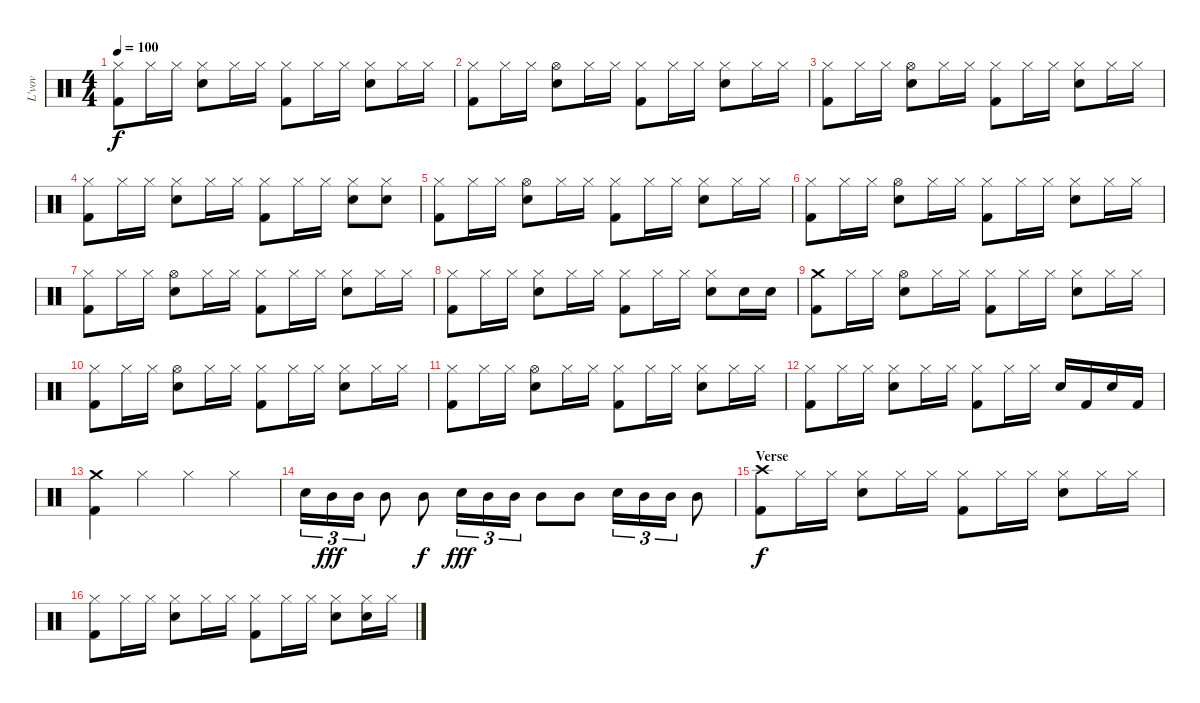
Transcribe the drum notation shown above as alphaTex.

\track ("L'vov" "L'vov") {instrument percussion}
\staff {score}
\articulation defaults
\ts (4 4)
\tempo 100
\clef neutral
\ks c
("Kick (hit) 2" "Hi-Hat (closed)").8{dy f} "Hi-Hat (closed)".16 "Hi-Hat (closed)".16 ("Snare (hit) 2" "Hi-Hat (closed)").8 "Hi-Hat (closed)".16 "Hi-Hat (closed)".16 ("Kick (hit) 2" "Hi-Hat (closed)").8 "Hi-Hat (closed)".16 "Hi-Hat (closed)".16 ("Snare (hit) 2" "Hi-Hat (closed)").8 "Hi-Hat (closed)".16 "Hi-Hat (closed)".16 |
("Kick (hit) 2" "Hi-Hat (closed)").8 "Hi-Hat (closed)".16 "Hi-Hat (closed)".16 ("Snare (hit) 2" "Hi-Hat (open)").8 "Hi-Hat (closed)".16 "Hi-Hat (closed)".16 ("Kick (hit) 2" "Hi-Hat (closed)").8 "Hi-Hat (closed)".16 "Hi-Hat (closed)".16 ("Snare (hit) 2" "Hi-Hat (closed)").8 "Hi-Hat (closed)".16 "Hi-Hat (closed)".16 |
("Kick (hit) 2" "Hi-Hat (closed)").8 "Hi-Hat (closed)".16 "Hi-Hat (closed)".16 ("Snare (hit) 2" "Hi-Hat (open)").8 "Hi-Hat (closed)".16 "Hi-Hat (closed)".16 ("Kick (hit) 2" "Hi-Hat (closed)").8 "Hi-Hat (closed)".16 "Hi-Hat (closed)".16 ("Snare (hit) 2" "Hi-Hat (closed)").8 "Hi-Hat (closed)".16 "Hi-Hat (closed)".16 |
("Kick (hit) 2" "Hi-Hat (closed)").8 "Hi-Hat (closed)".16 "Hi-Hat (closed)".16 ("Snare (hit) 2" "Hi-Hat (closed)").8 "Hi-Hat (closed)".16 "Hi-Hat (closed)".16 ("Kick (hit) 2" "Hi-Hat (closed)").8 "Hi-Hat (closed)".16 "Hi-Hat (closed)".16 ("Snare (hit) 2" "Hi-Hat (closed)").8 ("Snare (hit) 2" "Hi-Hat (closed)").8 |
("Kick (hit) 2" "Hi-Hat (closed)").8 "Hi-Hat (closed)".16 "Hi-Hat (closed)".16 ("Snare (hit) 2" "Hi-Hat (open)").8 "Hi-Hat (closed)".16 "Hi-Hat (closed)".16 ("Kick (hit) 2" "Hi-Hat (closed)").8 "Hi-Hat (closed)".16 "Hi-Hat (closed)".16 ("Snare (hit) 2" "Hi-Hat (closed)").8 "Hi-Hat (closed)".16 "Hi-Hat (closed)".16 |
("Kick (hit) 2" "Hi-Hat (closed)").8 "Hi-Hat (closed)".16 "Hi-Hat (closed)".16 ("Snare (hit) 2" "Hi-Hat (open)").8 "Hi-Hat (closed)".16 "Hi-Hat (closed)".16 ("Kick (hit) 2" "Hi-Hat (closed)").8 "Hi-Hat (closed)".16 "Hi-Hat (closed)".16 ("Snare (hit) 2" "Hi-Hat (closed)").8 "Hi-Hat (closed)".16 "Hi-Hat (closed)".16 |
("Kick (hit) 2" "Hi-Hat (closed)").8 "Hi-Hat (closed)".16 "Hi-Hat (closed)".16 ("Snare (hit) 2" "Hi-Hat (open)").8 "Hi-Hat (closed)".16 "Hi-Hat (closed)".16 ("Kick (hit) 2" "Hi-Hat (closed)").8 "Hi-Hat (closed)".16 "Hi-Hat (closed)".16 ("Snare (hit) 2" "Hi-Hat (closed)").8 "Hi-Hat (closed)".16 "Hi-Hat (closed)".16 |
("Kick (hit) 2" "Hi-Hat (closed)").8 "Hi-Hat (closed)".16 "Hi-Hat (closed)".16 ("Snare (hit) 2" "Hi-Hat (closed)").8 "Hi-Hat (closed)".16 "Hi-Hat (closed)".16 ("Kick (hit) 2" "Hi-Hat (closed)").8 "Hi-Hat (closed)".16 "Hi-Hat (closed)".16 ("Snare (hit) 2" "Hi-Hat (closed)").8 "Snare (hit) 2".16 "Snare (hit) 2".16 |
("Kick (hit) 2" "Crash medium (hit)").8 "Hi-Hat (closed)".16 "Hi-Hat (closed)".16 ("Snare (hit) 2" "Hi-Hat (open)").8 "Hi-Hat (closed)".16 "Hi-Hat (closed)".16 ("Kick (hit) 2" "Hi-Hat (closed)").8 "Hi-Hat (closed)".16 "Hi-Hat (closed)".16 ("Snare (hit) 2" "Hi-Hat (closed)").8 "Hi-Hat (closed)".16 "Hi-Hat (closed)".16 |
("Kick (hit) 2" "Hi-Hat (closed)").8 "Hi-Hat (closed)".16 "Hi-Hat (closed)".16 ("Snare (hit) 2" "Hi-Hat (open)").8 "Hi-Hat (closed)".16 "Hi-Hat (closed)".16 ("Kick (hit) 2" "Hi-Hat (closed)").8 "Hi-Hat (closed)".16 "Hi-Hat (closed)".16 ("Snare (hit) 2" "Hi-Hat (closed)").8 "Hi-Hat (closed)".16 "Hi-Hat (closed)".16 |
("Kick (hit) 2" "Hi-Hat (closed)").8 "Hi-Hat (closed)".16 "Hi-Hat (closed)".16 ("Snare (hit) 2" "Hi-Hat (open)").8 "Hi-Hat (closed)".16 "Hi-Hat (closed)".16 ("Kick (hit) 2" "Hi-Hat (closed)").8 "Hi-Hat (closed)".16 "Hi-Hat (closed)".16 ("Snare (hit) 2" "Hi-Hat (closed)").8 "Hi-Hat (closed)".16 "Hi-Hat (closed)".16 |
("Kick (hit) 2" "Hi-Hat (closed)").8 "Hi-Hat (closed)".16 "Hi-Hat (closed)".16 ("Snare (hit) 2" "Hi-Hat (closed)").8 "Hi-Hat (closed)".16 "Hi-Hat (closed)".16 ("Kick (hit) 2" "Hi-Hat (closed)").8 "Hi-Hat (closed)".16 "Hi-Hat (closed)".16 "Snare (hit) 2".16 "Kick (hit) 2".16 "Snare (hit) 2".16 "Kick (hit) 2".16 |
("Kick (hit) 2" "Crash medium (hit)").4 "Hi-Hat (closed)".4 "Hi-Hat (closed)".4 "Hi-Hat (closed)".4 |
"Snare (hit) 2".16{tu (3 2)} "Mid Tom (hit)".16{tu (3 2) dy fff} "Mid Tom (hit)".16{tu (3 2)} "Mid Tom (hit)".8 "Mid Tom (hit)".8{dy f} "Snare (hit) 2".16{tu (3 2) dy fff} "Mid Tom (hit)".16{tu (3 2)} "Mid Tom (hit)".16{tu (3 2)} "Mid Tom (hit)".8 "Mid Tom (hit)".8 "Snare (hit) 2".16{tu (3 2)} "Mid Tom (hit)".16{tu (3 2)} "Mid Tom (hit)".16{tu (3 2)} "Mid Tom (hit)".8 |
\section ("" "Verse ")
("Kick (hit) 2" "Crash high (hit)").8{dy f} "Hi-Hat (closed)".16 "Hi-Hat (closed)".16 ("Snare (hit) 2" "Hi-Hat (closed)").8 "Hi-Hat (closed)".16 "Hi-Hat (closed)".16 ("Kick (hit) 2" "Hi-Hat (closed)").8 "Hi-Hat (closed)".16 "Hi-Hat (closed)".16 ("Snare (hit) 2" "Hi-Hat (closed)").8 "Hi-Hat (closed)".16 "Hi-Hat (closed)".16 |
("Kick (hit) 2" "Hi-Hat (closed)").8 "Hi-Hat (closed)".16 "Hi-Hat (closed)".16 ("Snare (hit) 2" "Hi-Hat (closed)").8 "Hi-Hat (closed)".16 "Hi-Hat (closed)".16 ("Kick (hit) 2" "Hi-Hat (closed)").8 "Hi-Hat (closed)".16 "Hi-Hat (closed)".16 ("Snare (hit) 2" "Hi-Hat (closed)").8 ("Snare (hit) 2" "Hi-Hat (closed)").16 "Hi-Hat (closed)".16
